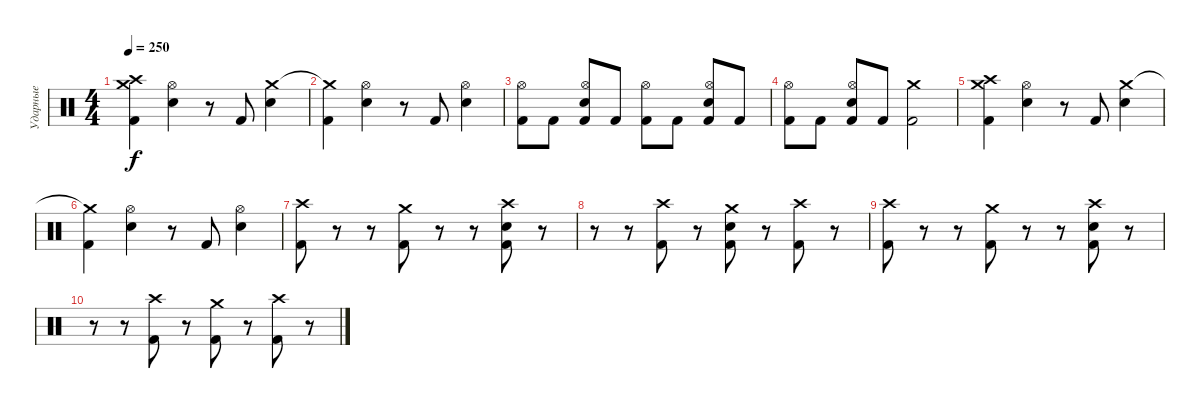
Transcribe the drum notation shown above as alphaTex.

\track ("Ударные" "Ударные") {instrument percussion}
\staff {score}
\articulation defaults
\ts (4 4)
\tempo 250
\clef neutral
\ks c
("Crash medium (hit)" "Crash high (hit)" "Kick (hit) 2").4{dy f} ("Hi-Hat (open)" "Electric Snare (hit)").4 r.8 "Kick (hit) 2".8 ("Crash medium (hit)" "Electric Snare (hit)").4 |
("Crash medium (hit)"{t} "Kick (hit) 2").4 ("Hi-Hat (open)" "Electric Snare (hit)").4 r.8 "Kick (hit) 2".8 ("Hi-Hat (open)" "Electric Snare (hit)").4 |
("Hi-Hat (open)" "Kick (hit) 2").8 "Kick (hit) 2".8 ("Hi-Hat (open)" "Electric Snare (hit)" "Kick (hit) 2").8 "Kick (hit) 2".8 ("Hi-Hat (open)" "Kick (hit) 2").8 "Kick (hit) 2".8 ("Hi-Hat (open)" "Electric Snare (hit)" "Kick (hit) 2").8 "Kick (hit) 2".8 |
("Hi-Hat (open)" "Kick (hit) 2").8 "Kick (hit) 2".8 ("Hi-Hat (open)" "Electric Snare (hit)" "Kick (hit) 2").8 "Kick (hit) 2".8 ("Crash medium (hit)" "Kick (hit) 2").2 |
("Crash medium (hit)" "Crash high (hit)" "Kick (hit) 2").4 ("Hi-Hat (open)" "Electric Snare (hit)").4 r.8 "Kick (hit) 2".8 ("Crash medium (hit)" "Electric Snare (hit)").4 |
("Crash medium (hit)"{t} "Kick (hit) 2").4 ("Hi-Hat (open)" "Electric Snare (hit)").4 r.8 "Kick (hit) 2".8 ("Hi-Hat (open)" "Electric Snare (hit)").4 |
("Crash high (hit)" "Kick (hit) 2").8 r.8 r.8 ("Crash medium (hit)" "Kick (hit) 2").8 r.8 r.8 ("Crash high (hit)" "Electric Snare (hit)" "Kick (hit) 2").8 r.8 |
r.8 r.8 ("Crash high (hit)" "Kick (hit) 2").8 r.8 ("Crash medium (hit)" "Electric Snare (hit)" "Kick (hit) 2").8 r.8 ("Crash high (hit)" "Kick (hit) 2").8 r.8 |
("Crash high (hit)" "Kick (hit) 2").8 r.8 r.8 ("Crash medium (hit)" "Kick (hit) 2").8 r.8 r.8 ("Crash high (hit)" "Electric Snare (hit)" "Kick (hit) 2").8 r.8 |
r.8 r.8 ("Crash high (hit)" "Kick (hit) 2").8 r.8 ("Crash medium (hit)" "Kick (hit) 2").8 r.8 ("Crash high (hit)" "Kick (hit) 2").8 r.8
